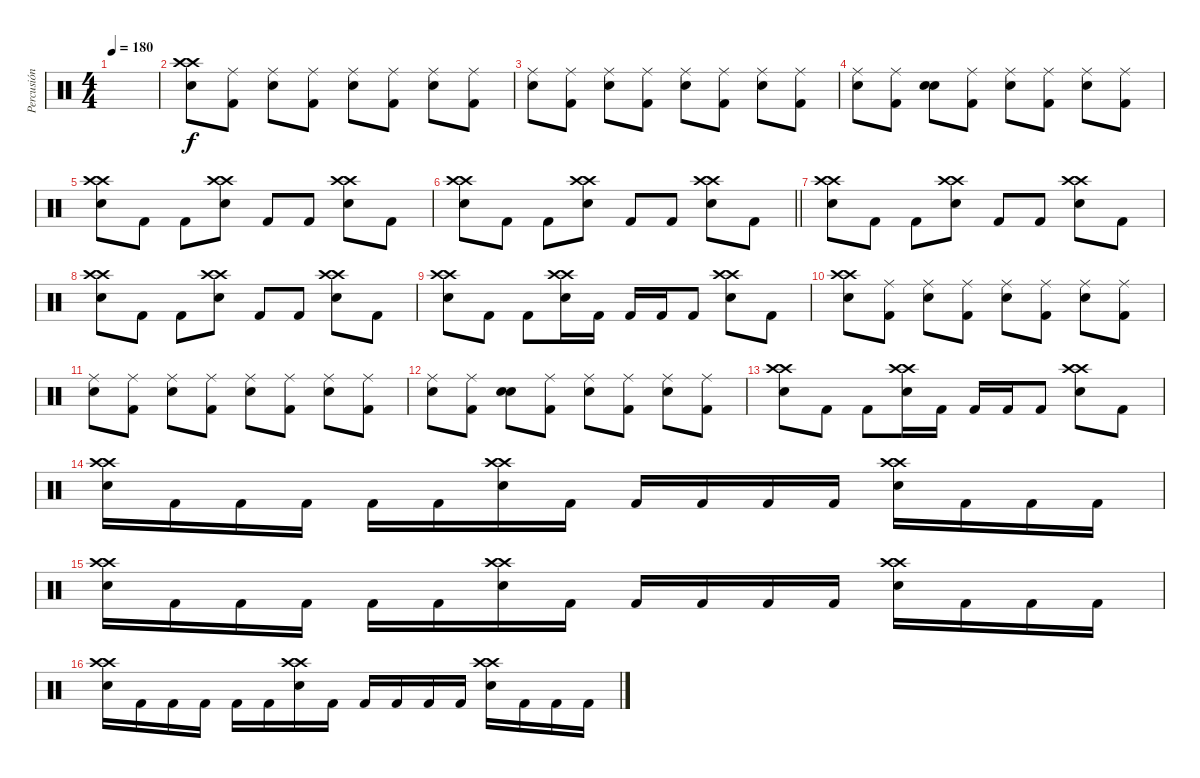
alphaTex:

\track ("Percusión" "Percusión") {instrument percussion}
\staff {score}
\articulation defaults
\ts (4 4)
\tempo 180
\clef neutral
\ks c
|
("Crash high (hit)" "Crash high (hit)" "Snare (hit) 2").8 ("Ride (middle)" "Kick (hit) 2").8 ("Ride (middle)" "Snare (hit) 2").8 ("Ride (middle)" "Kick (hit) 2").8 ("Ride (middle)" "Snare (hit) 2").8 ("Ride (middle)" "Kick (hit) 2").8 ("Ride (middle)" "Snare (hit) 2").8 ("Ride (middle)" "Kick (hit) 2").8 |
("Ride (middle)" "Snare (hit) 2").8 ("Ride (middle)" "Kick (hit) 2").8 ("Ride (middle)" "Snare (hit) 2").8 ("Ride (middle)" "Kick (hit) 2").8 ("Ride (middle)" "Snare (hit) 2").8 ("Ride (middle)" "Kick (hit) 2").8 ("Ride (middle)" "Snare (hit) 2").8 ("Ride (middle)" "Kick (hit) 2").8 |
("Ride (middle)" "Snare (hit) 2").8 ("Ride (middle)" "Kick (hit) 2").8 ("Snare (hit)" "Snare (hit) 2").8 ("Ride (middle)" "Kick (hit) 2").8 ("Ride (middle)" "Snare (hit) 2").8 ("Ride (middle)" "Kick (hit) 2").8 ("Ride (middle)" "Snare (hit) 2").8 ("Ride (middle)" "Kick (hit) 2").8 |
("Crash high (hit)" "Crash high (hit)" "Snare (hit) 2").8 "Kick (hit) 2".8 "Kick (hit) 2".8 ("Crash high (hit)" "Crash high (hit)" "Snare (hit) 2").8 "Kick (hit) 2".8 "Kick (hit) 2".8 ("Crash high (hit)" "Crash high (hit)" "Snare (hit) 2").8 "Kick (hit) 2".8 |
\barLineRight lightlight
("Crash high (hit)" "Crash high (hit)" "Snare (hit) 2").8 "Kick (hit) 2".8 "Kick (hit) 2".8 ("Crash high (hit)" "Crash high (hit)" "Snare (hit) 2").8 "Kick (hit) 2".8 "Kick (hit) 2".8 ("Crash high (hit)" "Crash high (hit)" "Snare (hit) 2").8 "Kick (hit) 2".8 |
("Crash high (hit)" "Crash high (hit)" "Snare (hit) 2").8 "Kick (hit) 2".8 "Kick (hit) 2".8 ("Crash high (hit)" "Crash high (hit)" "Snare (hit) 2").8 "Kick (hit) 2".8 "Kick (hit) 2".8 ("Crash high (hit)" "Crash high (hit)" "Snare (hit) 2").8 "Kick (hit) 2".8 |
("Crash high (hit)" "Crash high (hit)" "Snare (hit) 2").8 "Kick (hit) 2".8 "Kick (hit) 2".8 ("Crash high (hit)" "Crash high (hit)" "Snare (hit) 2").8 "Kick (hit) 2".8 "Kick (hit) 2".8 ("Crash high (hit)" "Crash high (hit)" "Snare (hit) 2").8 "Kick (hit) 2".8 |
("Crash high (hit)" "Crash high (hit)" "Snare (hit) 2").8 "Kick (hit) 2".8 "Kick (hit) 2".8 ("Crash high (hit)" "Crash high (hit)" "Snare (hit) 2").16 "Kick (hit) 2".16 "Kick (hit) 2".16 "Kick (hit) 2".16 "Kick (hit) 2".8 ("Crash high (hit)" "Crash high (hit)" "Snare (hit) 2").8 "Kick (hit) 2".8 |
("Crash high (hit)" "Crash high (hit)" "Snare (hit) 2").8 ("Ride (middle)" "Kick (hit) 2").8 ("Ride (middle)" "Snare (hit) 2").8 ("Ride (middle)" "Kick (hit) 2").8 ("Ride (middle)" "Snare (hit) 2").8 ("Ride (middle)" "Kick (hit) 2").8 ("Ride (middle)" "Snare (hit) 2").8 ("Ride (middle)" "Kick (hit) 2").8 |
("Ride (middle)" "Snare (hit) 2").8 ("Ride (middle)" "Kick (hit) 2").8 ("Ride (middle)" "Snare (hit) 2").8 ("Ride (middle)" "Kick (hit) 2").8 ("Ride (middle)" "Snare (hit) 2").8 ("Ride (middle)" "Kick (hit) 2").8 ("Ride (middle)" "Snare (hit) 2").8 ("Ride (middle)" "Kick (hit) 2").8 |
("Ride (middle)" "Snare (hit) 2").8 ("Ride (middle)" "Kick (hit) 2").8 ("Snare (hit)" "Snare (hit) 2").8 ("Ride (middle)" "Kick (hit) 2").8 ("Ride (middle)" "Snare (hit) 2").8 ("Ride (middle)" "Kick (hit) 2").8 ("Ride (middle)" "Snare (hit) 2").8 ("Ride (middle)" "Kick (hit) 2").8 |
("Crash high (hit)" "Crash high (hit)" "Snare (hit) 2").8 "Kick (hit) 2".8 "Kick (hit) 2".8 ("Crash high (hit)" "Crash high (hit)" "Snare (hit) 2").16 "Kick (hit) 2".16 "Kick (hit) 2".16 "Kick (hit) 2".16 "Kick (hit) 2".8 ("Crash high (hit)" "Crash high (hit)" "Snare (hit) 2").8 "Kick (hit) 2".8 |
("Crash high (hit)" "Crash high (hit)" "Snare (hit) 2").16 "Kick (hit) 2".16 "Kick (hit) 2".16 "Kick (hit) 2".16 "Kick (hit) 2".16 "Kick (hit) 2".16 ("Crash high (hit)" "Crash high (hit)" "Snare (hit) 2").16 "Kick (hit) 2".16 "Kick (hit) 2".16 "Kick (hit) 2".16 "Kick (hit) 2".16 "Kick (hit) 2".16 ("Crash high (hit)" "Crash high (hit)" "Snare (hit) 2").16 "Kick (hit) 2".16 "Kick (hit) 2".16 "Kick (hit) 2".16 |
("Crash high (hit)" "Crash high (hit)" "Snare (hit) 2").16 "Kick (hit) 2".16 "Kick (hit) 2".16 "Kick (hit) 2".16 "Kick (hit) 2".16 "Kick (hit) 2".16 ("Crash high (hit)" "Crash high (hit)" "Snare (hit) 2").16 "Kick (hit) 2".16 "Kick (hit) 2".16 "Kick (hit) 2".16 "Kick (hit) 2".16 "Kick (hit) 2".16 ("Crash high (hit)" "Crash high (hit)" "Snare (hit) 2").16 "Kick (hit) 2".16 "Kick (hit) 2".16 "Kick (hit) 2".16 |
("Crash high (hit)" "Crash high (hit)" "Snare (hit) 2").16 "Kick (hit) 2".16 "Kick (hit) 2".16 "Kick (hit) 2".16 "Kick (hit) 2".16 "Kick (hit) 2".16 ("Crash high (hit)" "Crash high (hit)" "Snare (hit) 2").16 "Kick (hit) 2".16 "Kick (hit) 2".16 "Kick (hit) 2".16 "Kick (hit) 2".16 "Kick (hit) 2".16 ("Crash high (hit)" "Crash high (hit)" "Snare (hit) 2").16 "Kick (hit) 2".16 "Kick (hit) 2".16 "Kick (hit) 2".16
